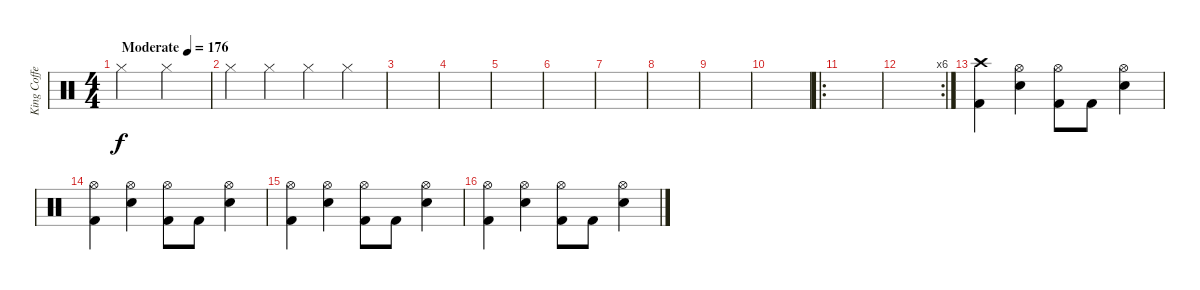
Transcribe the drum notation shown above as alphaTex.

\track ("King Coffey" "King Coffe") {instrument percussion}
\staff {score}
\articulation defaults
\ts (4 4)
\tempo (176 "Moderate")
\clef neutral
\ks c "Hi-Hat (closed)".2{dy f} "Hi-Hat (closed)".2
|
"Hi-Hat (closed)".4 "Hi-Hat (closed)".4 "Hi-Hat (closed)".4 "Hi-Hat (closed)".4 |
|
|
|
|
|
|
|
|
\ro
|
\rc 6
|
("Crash high (hit)" "Kick (hit) 2").4 ("Hi-Hat (open)" "Snare (hit) 2").4 ("Hi-Hat (open)" "Kick (hit) 2").8 "Kick (hit) 2".8 ("Hi-Hat (open)" "Snare (hit) 2").4 |
("Hi-Hat (open)" "Kick (hit) 2").4 ("Hi-Hat (open)" "Snare (hit) 2").4 ("Hi-Hat (open)" "Kick (hit) 2").8 "Kick (hit) 2".8 ("Hi-Hat (open)" "Snare (hit) 2").4 |
("Hi-Hat (open)" "Kick (hit) 2").4 ("Hi-Hat (open)" "Snare (hit) 2").4 ("Hi-Hat (open)" "Kick (hit) 2").8 "Kick (hit) 2".8 ("Hi-Hat (open)" "Snare (hit) 2").4 |
("Hi-Hat (open)" "Kick (hit) 2").4 ("Hi-Hat (open)" "Snare (hit) 2").4 ("Hi-Hat (open)" "Kick (hit) 2").8 "Kick (hit) 2".8 ("Hi-Hat (open)" "Snare (hit) 2").4
